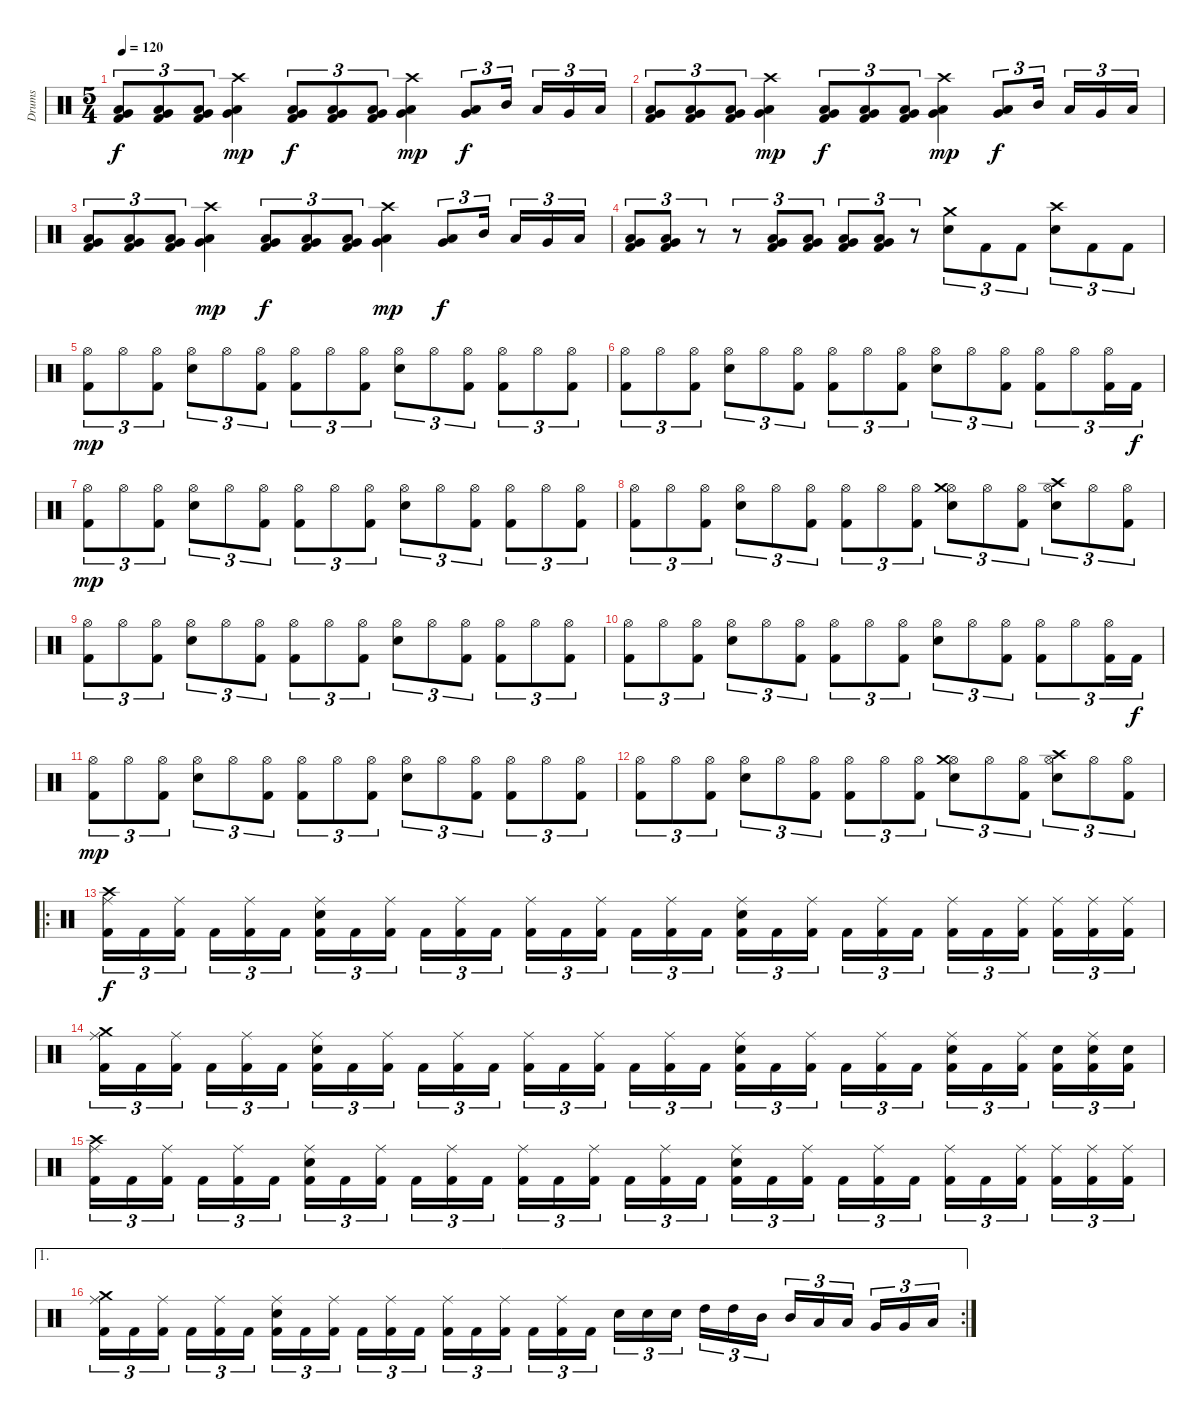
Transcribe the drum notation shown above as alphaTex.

\track ("Drums" "Drums") {instrument percussion}
\staff {score}
\articulation defaults
\ts (5 4)
\tempo 120
\clef neutral
\ks c
("Low Tom (hit)" "Very Low Tom (hit)" "Kick (hit) 2").8{tu (3 2) dy f} ("Low Tom (hit)" "Very Low Tom (hit)" "Kick (hit) 2").8{tu (3 2)} ("Low Tom (hit)" "Very Low Tom (hit)" "Kick (hit) 2").8{tu (3 2)} ("Crash high (hit)" "Low Tom (hit)" "Very Low Tom (hit)").4{dy mp} ("Low Tom (hit)" "Very Low Tom (hit)" "Kick (hit) 2").8{tu (3 2) dy f} ("Low Tom (hit)" "Very Low Tom (hit)" "Kick (hit) 2").8{tu (3 2)} ("Low Tom (hit)" "Very Low Tom (hit)" "Kick (hit) 2").8{tu (3 2)} ("Crash high (hit)" "Low Tom (hit)" "Very Low Tom (hit)").4{dy mp} ("Low Tom (hit)" "Very Low Tom (hit)").8{tu (3 2) dy f} "Mid Tom (hit)".16{tu (3 2)} "Low Tom (hit)".16{tu (3 2)} "Very Low Tom (hit)".16{tu (3 2)} "Low Floor Tom (hit)".16{tu (3 2)} |
("Low Tom (hit)" "Very Low Tom (hit)" "Kick (hit) 2").8{tu (3 2)} ("Low Tom (hit)" "Very Low Tom (hit)" "Kick (hit) 2").8{tu (3 2)} ("Low Tom (hit)" "Very Low Tom (hit)" "Kick (hit) 2").8{tu (3 2)} ("Crash high (hit)" "Low Tom (hit)" "Very Low Tom (hit)").4{dy mp} ("Low Tom (hit)" "Very Low Tom (hit)" "Kick (hit) 2").8{tu (3 2) dy f} ("Low Tom (hit)" "Very Low Tom (hit)" "Kick (hit) 2").8{tu (3 2)} ("Low Tom (hit)" "Very Low Tom (hit)" "Kick (hit) 2").8{tu (3 2)} ("Crash high (hit)" "Low Tom (hit)" "Very Low Tom (hit)").4{dy mp} ("Low Tom (hit)" "Very Low Tom (hit)").8{tu (3 2) dy f} "Mid Tom (hit)".16{tu (3 2)} "Low Tom (hit)".16{tu (3 2)} "Very Low Tom (hit)".16{tu (3 2)} "Low Floor Tom (hit)".16{tu (3 2)} |
("Low Tom (hit)" "Very Low Tom (hit)" "Kick (hit) 2").8{tu (3 2)} ("Low Tom (hit)" "Very Low Tom (hit)" "Kick (hit) 2").8{tu (3 2)} ("Low Tom (hit)" "Very Low Tom (hit)" "Kick (hit) 2").8{tu (3 2)} ("Crash high (hit)" "Low Tom (hit)" "Very Low Tom (hit)").4{dy mp} ("Low Tom (hit)" "Very Low Tom (hit)" "Kick (hit) 2").8{tu (3 2) dy f} ("Low Tom (hit)" "Very Low Tom (hit)" "Kick (hit) 2").8{tu (3 2)} ("Low Tom (hit)" "Very Low Tom (hit)" "Kick (hit) 2").8{tu (3 2)} ("Crash high (hit)" "Low Tom (hit)" "Very Low Tom (hit)").4{dy mp} ("Low Tom (hit)" "Very Low Tom (hit)").8{tu (3 2) dy f} "Mid Tom (hit)".16{tu (3 2)} "Low Tom (hit)".16{tu (3 2)} "Very Low Tom (hit)".16{tu (3 2)} "Low Floor Tom (hit)".16{tu (3 2)} |
("Low Tom (hit)" "Very Low Tom (hit)" "Kick (hit) 2").8{tu (3 2)} ("Low Tom (hit)" "Very Low Tom (hit)" "Kick (hit) 2").8{tu (3 2)} r.8{tu (3 2)} r.8{tu (3 2)} ("Low Tom (hit)" "Very Low Tom (hit)" "Kick (hit) 2").8{tu (3 2)} ("Low Tom (hit)" "Very Low Tom (hit)" "Kick (hit) 2").8{tu (3 2)} ("Low Tom (hit)" "Very Low Tom (hit)" "Kick (hit) 2").8{tu (3 2)} ("Low Tom (hit)" "Very Low Tom (hit)" "Kick (hit) 2").8{tu (3 2)} r.8{tu (3 2)} ("Crash medium (hit)" "Snare (hit) 2").8{tu (3 2)} "Kick (hit) 2".8{tu (3 2)} "Kick (hit) 2".8{tu (3 2)} ("Crash high (hit)" "Snare (hit) 2").8{tu (3 2)} "Kick (hit) 2".8{tu (3 2)} "Kick (hit) 2".8{tu (3 2)} |
("Hi-Hat (open)" "Kick (hit) 2").8{tu (3 2) dy mp} "Hi-Hat (open)".8{tu (3 2)} ("Hi-Hat (open)" "Kick (hit) 2").8{tu (3 2)} ("Hi-Hat (open)" "Snare (hit) 2").8{tu (3 2)} "Hi-Hat (open)".8{tu (3 2)} ("Hi-Hat (open)" "Kick (hit) 2").8{tu (3 2)} ("Hi-Hat (open)" "Kick (hit) 2").8{tu (3 2)} "Hi-Hat (open)".8{tu (3 2)} ("Hi-Hat (open)" "Kick (hit) 2").8{tu (3 2)} ("Hi-Hat (open)" "Snare (hit) 2").8{tu (3 2)} "Hi-Hat (open)".8{tu (3 2)} ("Hi-Hat (open)" "Kick (hit) 2").8{tu (3 2)} ("Hi-Hat (open)" "Kick (hit) 2").8{tu (3 2)} "Hi-Hat (open)".8{tu (3 2)} ("Hi-Hat (open)" "Kick (hit) 2").8{tu (3 2)} |
("Hi-Hat (open)" "Kick (hit) 2").8{tu (3 2)} "Hi-Hat (open)".8{tu (3 2)} ("Hi-Hat (open)" "Kick (hit) 2").8{tu (3 2)} ("Hi-Hat (open)" "Snare (hit) 2").8{tu (3 2)} "Hi-Hat (open)".8{tu (3 2)} ("Hi-Hat (open)" "Kick (hit) 2").8{tu (3 2)} ("Hi-Hat (open)" "Kick (hit) 2").8{tu (3 2)} "Hi-Hat (open)".8{tu (3 2)} ("Hi-Hat (open)" "Kick (hit) 2").8{tu (3 2)} ("Hi-Hat (open)" "Snare (hit) 2").8{tu (3 2)} "Hi-Hat (open)".8{tu (3 2)} ("Hi-Hat (open)" "Kick (hit) 2").8{tu (3 2)} ("Hi-Hat (open)" "Kick (hit) 2").8{tu (3 2)} "Hi-Hat (open)".8{tu (3 2)} ("Hi-Hat (open)" "Kick (hit) 2").16{tu (3 2)} "Kick (hit) 2".16{tu (3 2) dy f} |
("Hi-Hat (open)" "Kick (hit) 2").8{tu (3 2) dy mp} "Hi-Hat (open)".8{tu (3 2)} ("Hi-Hat (open)" "Kick (hit) 2").8{tu (3 2)} ("Hi-Hat (open)" "Snare (hit) 2").8{tu (3 2)} "Hi-Hat (open)".8{tu (3 2)} ("Hi-Hat (open)" "Kick (hit) 2").8{tu (3 2)} ("Hi-Hat (open)" "Kick (hit) 2").8{tu (3 2)} "Hi-Hat (open)".8{tu (3 2)} ("Hi-Hat (open)" "Kick (hit) 2").8{tu (3 2)} ("Hi-Hat (open)" "Snare (hit) 2").8{tu (3 2)} "Hi-Hat (open)".8{tu (3 2)} ("Hi-Hat (open)" "Kick (hit) 2").8{tu (3 2)} ("Hi-Hat (open)" "Kick (hit) 2").8{tu (3 2)} "Hi-Hat (open)".8{tu (3 2)} ("Hi-Hat (open)" "Kick (hit) 2").8{tu (3 2)} |
("Hi-Hat (open)" "Kick (hit) 2").8{tu (3 2)} "Hi-Hat (open)".8{tu (3 2)} ("Hi-Hat (open)" "Kick (hit) 2").8{tu (3 2)} ("Hi-Hat (open)" "Snare (hit) 2").8{tu (3 2)} "Hi-Hat (open)".8{tu (3 2)} ("Hi-Hat (open)" "Kick (hit) 2").8{tu (3 2)} ("Hi-Hat (open)" "Kick (hit) 2").8{tu (3 2)} "Hi-Hat (open)".8{tu (3 2)} ("Hi-Hat (open)" "Kick (hit) 2").8{tu (3 2)} ("Hi-Hat (open)" "Crash medium (hit)" "Snare (hit) 2").8{tu (3 2)} "Hi-Hat (open)".8{tu (3 2)} ("Hi-Hat (open)" "Kick (hit) 2").8{tu (3 2)} ("Hi-Hat (open)" "Crash high (hit)" "Snare (hit) 2").8{tu (3 2)} "Hi-Hat (open)".8{tu (3 2)} ("Hi-Hat (open)" "Kick (hit) 2").8{tu (3 2)} |
("Hi-Hat (open)" "Kick (hit) 2").8{tu (3 2)} "Hi-Hat (open)".8{tu (3 2)} ("Hi-Hat (open)" "Kick (hit) 2").8{tu (3 2)} ("Hi-Hat (open)" "Snare (hit) 2").8{tu (3 2)} "Hi-Hat (open)".8{tu (3 2)} ("Hi-Hat (open)" "Kick (hit) 2").8{tu (3 2)} ("Hi-Hat (open)" "Kick (hit) 2").8{tu (3 2)} "Hi-Hat (open)".8{tu (3 2)} ("Hi-Hat (open)" "Kick (hit) 2").8{tu (3 2)} ("Hi-Hat (open)" "Snare (hit) 2").8{tu (3 2)} "Hi-Hat (open)".8{tu (3 2)} ("Hi-Hat (open)" "Kick (hit) 2").8{tu (3 2)} ("Hi-Hat (open)" "Kick (hit) 2").8{tu (3 2)} "Hi-Hat (open)".8{tu (3 2)} ("Hi-Hat (open)" "Kick (hit) 2").8{tu (3 2)} |
("Hi-Hat (open)" "Kick (hit) 2").8{tu (3 2)} "Hi-Hat (open)".8{tu (3 2)} ("Hi-Hat (open)" "Kick (hit) 2").8{tu (3 2)} ("Hi-Hat (open)" "Snare (hit) 2").8{tu (3 2)} "Hi-Hat (open)".8{tu (3 2)} ("Hi-Hat (open)" "Kick (hit) 2").8{tu (3 2)} ("Hi-Hat (open)" "Kick (hit) 2").8{tu (3 2)} "Hi-Hat (open)".8{tu (3 2)} ("Hi-Hat (open)" "Kick (hit) 2").8{tu (3 2)} ("Hi-Hat (open)" "Snare (hit) 2").8{tu (3 2)} "Hi-Hat (open)".8{tu (3 2)} ("Hi-Hat (open)" "Kick (hit) 2").8{tu (3 2)} ("Hi-Hat (open)" "Kick (hit) 2").8{tu (3 2)} "Hi-Hat (open)".8{tu (3 2)} ("Hi-Hat (open)" "Kick (hit) 2").16{tu (3 2)} "Kick (hit) 2".16{tu (3 2) dy f} |
("Hi-Hat (open)" "Kick (hit) 2").8{tu (3 2) dy mp} "Hi-Hat (open)".8{tu (3 2)} ("Hi-Hat (open)" "Kick (hit) 2").8{tu (3 2)} ("Hi-Hat (open)" "Snare (hit) 2").8{tu (3 2)} "Hi-Hat (open)".8{tu (3 2)} ("Hi-Hat (open)" "Kick (hit) 2").8{tu (3 2)} ("Hi-Hat (open)" "Kick (hit) 2").8{tu (3 2)} "Hi-Hat (open)".8{tu (3 2)} ("Hi-Hat (open)" "Kick (hit) 2").8{tu (3 2)} ("Hi-Hat (open)" "Snare (hit) 2").8{tu (3 2)} "Hi-Hat (open)".8{tu (3 2)} ("Hi-Hat (open)" "Kick (hit) 2").8{tu (3 2)} ("Hi-Hat (open)" "Kick (hit) 2").8{tu (3 2)} "Hi-Hat (open)".8{tu (3 2)} ("Hi-Hat (open)" "Kick (hit) 2").8{tu (3 2)} |
("Hi-Hat (open)" "Kick (hit) 2").8{tu (3 2)} "Hi-Hat (open)".8{tu (3 2)} ("Hi-Hat (open)" "Kick (hit) 2").8{tu (3 2)} ("Hi-Hat (open)" "Snare (hit) 2").8{tu (3 2)} "Hi-Hat (open)".8{tu (3 2)} ("Hi-Hat (open)" "Kick (hit) 2").8{tu (3 2)} ("Hi-Hat (open)" "Kick (hit) 2").8{tu (3 2)} "Hi-Hat (open)".8{tu (3 2)} ("Hi-Hat (open)" "Kick (hit) 2").8{tu (3 2)} ("Hi-Hat (open)" "Crash medium (hit)" "Snare (hit) 2").8{tu (3 2)} "Hi-Hat (open)".8{tu (3 2)} ("Hi-Hat (open)" "Kick (hit) 2").8{tu (3 2)} ("Hi-Hat (open)" "Crash high (hit)" "Snare (hit) 2").8{tu (3 2)} "Hi-Hat (open)".8{tu (3 2)} ("Hi-Hat (open)" "Kick (hit) 2").8{tu (3 2)} |
\ro
("Crash high (hit)" "Ride (middle)" "Kick (hit) 2").16{tu (3 2) dy f} "Kick (hit) 2".16{tu (3 2)} ("Ride (middle)" "Kick (hit) 2").16{tu (3 2)} "Kick (hit) 2".16{tu (3 2)} ("Ride (middle)" "Kick (hit) 2").16{tu (3 2)} "Kick (hit) 2".16{tu (3 2)} ("Ride (middle)" "Snare (hit) 2" "Kick (hit) 2").16{tu (3 2)} "Kick (hit) 2".16{tu (3 2)} ("Ride (middle)" "Kick (hit) 2").16{tu (3 2)} "Kick (hit) 2".16{tu (3 2)} ("Ride (middle)" "Kick (hit) 2").16{tu (3 2)} "Kick (hit) 2".16{tu (3 2)} ("Ride (middle)" "Kick (hit) 2").16{tu (3 2)} "Kick (hit) 2".16{tu (3 2)} ("Ride (middle)" "Kick (hit) 2").16{tu (3 2)} "Kick (hit) 2".16{tu (3 2)} ("Ride (middle)" "Kick (hit) 2").16{tu (3 2)} "Kick (hit) 2".16{tu (3 2)} ("Ride (middle)" "Snare (hit) 2" "Kick (hit) 2").16{tu (3 2)} "Kick (hit) 2".16{tu (3 2)} ("Ride (middle)" "Kick (hit) 2").16{tu (3 2)} "Kick (hit) 2".16{tu (3 2)} ("Ride (middle)" "Kick (hit) 2").16{tu (3 2)} "Kick (hit) 2".16{tu (3 2)} ("Ride (middle)" "Kick (hit) 2").16{tu (3 2)} "Kick (hit) 2".16{tu (3 2)} ("Ride (middle)" "Kick (hit) 2").16{tu (3 2)} ("Ride (middle)" "Kick (hit) 2").16{tu (3 2)} ("Ride (middle)" "Kick (hit) 2").16{tu (3 2)} ("Ride (middle)" "Kick (hit) 2").16{tu (3 2)} |
("Crash medium (hit)" "Ride (middle)" "Kick (hit) 2").16{tu (3 2)} "Kick (hit) 2".16{tu (3 2)} ("Ride (middle)" "Kick (hit) 2").16{tu (3 2)} "Kick (hit) 2".16{tu (3 2)} ("Ride (middle)" "Kick (hit) 2").16{tu (3 2)} "Kick (hit) 2".16{tu (3 2)} ("Ride (middle)" "Snare (hit) 2" "Kick (hit) 2").16{tu (3 2)} "Kick (hit) 2".16{tu (3 2)} ("Ride (middle)" "Kick (hit) 2").16{tu (3 2)} "Kick (hit) 2".16{tu (3 2)} ("Ride (middle)" "Kick (hit) 2").16{tu (3 2)} "Kick (hit) 2".16{tu (3 2)} ("Ride (middle)" "Kick (hit) 2").16{tu (3 2)} "Kick (hit) 2".16{tu (3 2)} ("Ride (middle)" "Kick (hit) 2").16{tu (3 2)} "Kick (hit) 2".16{tu (3 2)} ("Ride (middle)" "Kick (hit) 2").16{tu (3 2)} "Kick (hit) 2".16{tu (3 2)} ("Ride (middle)" "Snare (hit) 2" "Kick (hit) 2").16{tu (3 2)} "Kick (hit) 2".16{tu (3 2)} ("Ride (middle)" "Kick (hit) 2").16{tu (3 2)} "Kick (hit) 2".16{tu (3 2)} ("Ride (middle)" "Kick (hit) 2").16{tu (3 2)} "Kick (hit) 2".16{tu (3 2)} ("Ride (middle)" "Snare (hit) 2" "Kick (hit) 2").16{tu (3 2)} "Kick (hit) 2".16{tu (3 2)} ("Ride (middle)" "Kick (hit) 2").16{tu (3 2)} ("Snare (hit) 2" "Kick (hit) 2").16{tu (3 2)} ("Ride (middle)" "Snare (hit) 2" "Kick (hit) 2").16{tu (3 2)} ("Snare (hit) 2" "Kick (hit) 2").16{tu (3 2)} |
("Crash high (hit)" "Ride (middle)" "Kick (hit) 2").16{tu (3 2)} "Kick (hit) 2".16{tu (3 2)} ("Ride (middle)" "Kick (hit) 2").16{tu (3 2)} "Kick (hit) 2".16{tu (3 2)} ("Ride (middle)" "Kick (hit) 2").16{tu (3 2)} "Kick (hit) 2".16{tu (3 2)} ("Ride (middle)" "Snare (hit) 2" "Kick (hit) 2").16{tu (3 2)} "Kick (hit) 2".16{tu (3 2)} ("Ride (middle)" "Kick (hit) 2").16{tu (3 2)} "Kick (hit) 2".16{tu (3 2)} ("Ride (middle)" "Kick (hit) 2").16{tu (3 2)} "Kick (hit) 2".16{tu (3 2)} ("Ride (middle)" "Kick (hit) 2").16{tu (3 2)} "Kick (hit) 2".16{tu (3 2)} ("Ride (middle)" "Kick (hit) 2").16{tu (3 2)} "Kick (hit) 2".16{tu (3 2)} ("Ride (middle)" "Kick (hit) 2").16{tu (3 2)} "Kick (hit) 2".16{tu (3 2)} ("Ride (middle)" "Snare (hit) 2" "Kick (hit) 2").16{tu (3 2)} "Kick (hit) 2".16{tu (3 2)} ("Ride (middle)" "Kick (hit) 2").16{tu (3 2)} "Kick (hit) 2".16{tu (3 2)} ("Ride (middle)" "Kick (hit) 2").16{tu (3 2)} "Kick (hit) 2".16{tu (3 2)} ("Ride (middle)" "Kick (hit) 2").16{tu (3 2)} "Kick (hit) 2".16{tu (3 2)} ("Ride (middle)" "Kick (hit) 2").16{tu (3 2)} ("Ride (middle)" "Kick (hit) 2").16{tu (3 2)} ("Ride (middle)" "Kick (hit) 2").16{tu (3 2)} ("Ride (middle)" "Kick (hit) 2").16{tu (3 2)} |
\ae 1
\rc 2
("Crash medium (hit)" "Ride (middle)" "Kick (hit) 2").16{tu (3 2)} "Kick (hit) 2".16{tu (3 2)} ("Ride (middle)" "Kick (hit) 2").16{tu (3 2)} "Kick (hit) 2".16{tu (3 2)} ("Ride (middle)" "Kick (hit) 2").16{tu (3 2)} "Kick (hit) 2".16{tu (3 2)} ("Ride (middle)" "Snare (hit) 2" "Kick (hit) 2").16{tu (3 2)} "Kick (hit) 2".16{tu (3 2)} ("Ride (middle)" "Kick (hit) 2").16{tu (3 2)} "Kick (hit) 2".16{tu (3 2)} ("Ride (middle)" "Kick (hit) 2").16{tu (3 2)} "Kick (hit) 2".16{tu (3 2)} ("Ride (middle)" "Kick (hit) 2").16{tu (3 2)} "Kick (hit) 2".16{tu (3 2)} ("Ride (middle)" "Kick (hit) 2").16{tu (3 2)} "Kick (hit) 2".16{tu (3 2)} ("Ride (middle)" "Kick (hit) 2").16{tu (3 2)} "Kick (hit) 2".16{tu (3 2)} "Snare (hit) 2".16{tu (3 2)} "Snare (hit) 2".16{tu (3 2)} "Snare (hit) 2".16{tu (3 2)} "High Tom (hit)".16{tu (3 2)} "High Tom (hit)".16{tu (3 2)} "Mid Tom (hit)".16{tu (3 2)} "Mid Tom (hit)".16{tu (3 2)} "Low Tom (hit)".16{tu (3 2)} "Low Tom (hit)".16{tu (3 2)} "Very Low Tom (hit)".16{tu (3 2)} "Very Low Tom (hit)".16{tu (3 2)} "Low Floor Tom (hit)".16{tu (3 2)}
